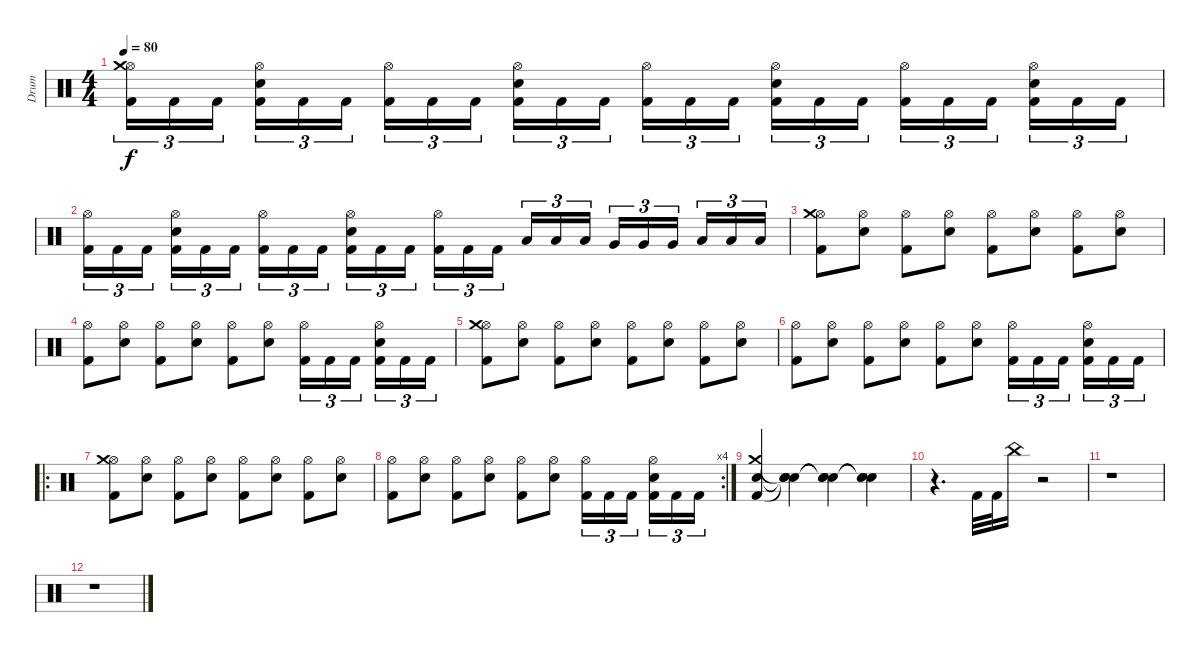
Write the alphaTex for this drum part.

\track ("Drum" "Drum") {instrument percussion}
\staff {score}
\articulation defaults
\ts (4 4)
\tempo 80
\clef neutral
\ks c
("Hi-Hat (open)" "Kick (hit) 2" "Crash medium (hit)").16{tu (3 2) dy f} "Kick (hit) 2".16{tu (3 2)} "Kick (hit) 2".16{tu (3 2)} ("Hi-Hat (open)" "Kick (hit) 2" "Snare (hit) 2").16{tu (3 2)} "Kick (hit) 2".16{tu (3 2)} "Kick (hit) 2".16{tu (3 2)} ("Hi-Hat (open)" "Kick (hit) 2").16{tu (3 2)} "Kick (hit) 2".16{tu (3 2)} "Kick (hit) 2".16{tu (3 2)} ("Hi-Hat (open)" "Kick (hit) 2" "Snare (hit) 2").16{tu (3 2)} "Kick (hit) 2".16{tu (3 2)} "Kick (hit) 2".16{tu (3 2)} ("Hi-Hat (open)" "Kick (hit) 2").16{tu (3 2)} "Kick (hit) 2".16{tu (3 2)} "Kick (hit) 2".16{tu (3 2)} ("Hi-Hat (open)" "Kick (hit) 2" "Snare (hit) 2").16{tu (3 2)} "Kick (hit) 2".16{tu (3 2)} "Kick (hit) 2".16{tu (3 2)} ("Hi-Hat (open)" "Kick (hit) 2").16{tu (3 2)} "Kick (hit) 2".16{tu (3 2)} "Kick (hit) 2".16{tu (3 2)} ("Hi-Hat (open)" "Kick (hit) 2" "Snare (hit) 2").16{tu (3 2)} "Kick (hit) 2".16{tu (3 2)} "Kick (hit) 2".16{tu (3 2)} |
("Hi-Hat (open)" "Kick (hit) 2").16{tu (3 2)} "Kick (hit) 2".16{tu (3 2)} "Kick (hit) 2".16{tu (3 2)} ("Hi-Hat (open)" "Kick (hit) 2" "Snare (hit) 2").16{tu (3 2)} "Kick (hit) 2".16{tu (3 2)} "Kick (hit) 2".16{tu (3 2)} ("Hi-Hat (open)" "Kick (hit) 2").16{tu (3 2)} "Kick (hit) 2".16{tu (3 2)} "Kick (hit) 2".16{tu (3 2)} ("Hi-Hat (open)" "Kick (hit) 2" "Snare (hit) 2").16{tu (3 2)} "Kick (hit) 2".16{tu (3 2)} "Kick (hit) 2".16{tu (3 2)} ("Hi-Hat (open)" "Kick (hit) 2").16{tu (3 2)} "Kick (hit) 2".16{tu (3 2)} "Kick (hit) 2".16{tu (3 2)} "Low Tom (hit)".16{tu (3 2)} "Low Tom (hit)".16{tu (3 2)} "Low Tom (hit)".16{tu (3 2)} "Very Low Tom (hit)".16{tu (3 2)} "Very Low Tom (hit)".16{tu (3 2)} "Very Low Tom (hit)".16{tu (3 2)} "Low Floor Tom (hit)".16{tu (3 2)} "Low Floor Tom (hit)".16{tu (3 2)} "Low Floor Tom (hit)".16{tu (3 2)} |
("Hi-Hat (open)" "Kick (hit) 2" "Crash medium (hit)").8 ("Hi-Hat (open)" "Snare (hit) 2").8 ("Hi-Hat (open)" "Kick (hit) 2").8 ("Hi-Hat (open)" "Snare (hit) 2").8 ("Hi-Hat (open)" "Kick (hit) 2").8 ("Hi-Hat (open)" "Snare (hit) 2").8 ("Hi-Hat (open)" "Kick (hit) 2").8 ("Hi-Hat (open)" "Snare (hit) 2").8 |
("Hi-Hat (open)" "Kick (hit) 2").8 ("Hi-Hat (open)" "Snare (hit) 2").8 ("Hi-Hat (open)" "Kick (hit) 2").8 ("Hi-Hat (open)" "Snare (hit) 2").8 ("Hi-Hat (open)" "Kick (hit) 2").8 ("Hi-Hat (open)" "Snare (hit) 2").8 ("Hi-Hat (open)" "Kick (hit) 2").16{tu (3 2)} "Kick (hit) 2".16{tu (3 2)} "Kick (hit) 2".16{tu (3 2)} ("Hi-Hat (open)" "Kick (hit) 2" "Snare (hit) 2").16{tu (3 2)} "Kick (hit) 2".16{tu (3 2)} "Kick (hit) 2".16{tu (3 2)} |
("Hi-Hat (open)" "Kick (hit) 2" "Crash medium (hit)").8 ("Hi-Hat (open)" "Snare (hit) 2").8 ("Hi-Hat (open)" "Kick (hit) 2").8 ("Hi-Hat (open)" "Snare (hit) 2").8 ("Hi-Hat (open)" "Kick (hit) 2").8 ("Hi-Hat (open)" "Snare (hit) 2").8 ("Hi-Hat (open)" "Kick (hit) 2").8 ("Hi-Hat (open)" "Snare (hit) 2").8 |
("Hi-Hat (open)" "Kick (hit) 2").8 ("Hi-Hat (open)" "Snare (hit) 2").8 ("Hi-Hat (open)" "Kick (hit) 2").8 ("Hi-Hat (open)" "Snare (hit) 2").8 ("Hi-Hat (open)" "Kick (hit) 2").8 ("Hi-Hat (open)" "Snare (hit) 2").8 ("Hi-Hat (open)" "Kick (hit) 2").16{tu (3 2)} "Kick (hit) 2".16{tu (3 2)} "Kick (hit) 2".16{tu (3 2)} ("Hi-Hat (open)" "Kick (hit) 2" "Snare (hit) 2").16{tu (3 2)} "Kick (hit) 2".16{tu (3 2)} "Kick (hit) 2".16{tu (3 2)} |
\ro
("Hi-Hat (open)" "Kick (hit) 2" "Crash medium (hit)").8 ("Hi-Hat (open)" "Snare (hit) 2").8 ("Hi-Hat (open)" "Kick (hit) 2").8 ("Hi-Hat (open)" "Snare (hit) 2").8 ("Hi-Hat (open)" "Kick (hit) 2").8 ("Hi-Hat (open)" "Snare (hit) 2").8 ("Hi-Hat (open)" "Kick (hit) 2").8 ("Hi-Hat (open)" "Snare (hit) 2").8 |
\rc 4
("Hi-Hat (open)" "Kick (hit) 2").8 ("Hi-Hat (open)" "Snare (hit) 2").8 ("Hi-Hat (open)" "Kick (hit) 2").8 ("Hi-Hat (open)" "Snare (hit) 2").8 ("Hi-Hat (open)" "Kick (hit) 2").8 ("Hi-Hat (open)" "Snare (hit) 2").8 ("Hi-Hat (open)" "Kick (hit) 2").16{tu (3 2)} "Kick (hit) 2".16{tu (3 2)} "Kick (hit) 2".16{tu (3 2)} ("Hi-Hat (open)" "Kick (hit) 2" "Snare (hit) 2").16{tu (3 2)} "Kick (hit) 2".16{tu (3 2)} "Kick (hit) 2".16{tu (3 2)} |
("Kick (hit) 2" "Snare (hit) 2" "Crash medium (hit)").4{volume 1} ("Snare (hit)"{t} "Snare (hit)"{t} "Snare (hit)"{t}).4 ("Snare (hit)"{t} "Snare (hit)"{t} "Snare (hit)"{t}).4 ("Snare (hit)"{t} "Snare (hit)"{t} "Snare (hit)"{t}).4 |
r.4{d volume 12} "Kick (hit) 2".32 "Kick (hit) 2".32 "China (hit)".16 r.2 |
r.1 |
r.1
